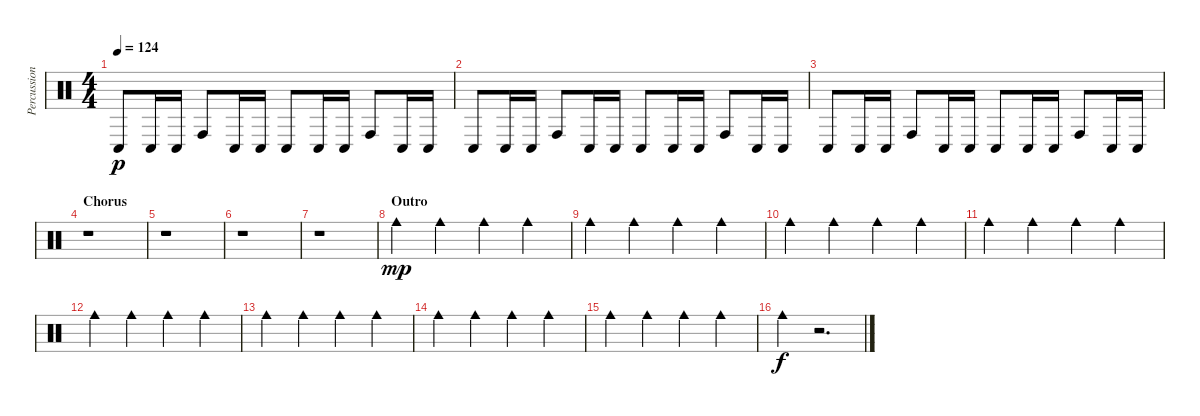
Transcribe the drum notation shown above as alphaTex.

\track ("Percussion" "Percussion") {instrument percussion}
\staff {score}
\articulation defaults
\ts (4 4)
\tempo 124
\clef neutral
\ks c "Conga low (hit)".8{dy p} "Conga low (hit)".16 "Conga low (hit)".16 "Conga high (hit)".8 "Conga low (hit)".16 "Conga low (hit)".16 "Conga low (hit)".8 "Conga low (hit)".16 "Conga low (hit)".16 "Conga high (hit)".8 "Conga low (hit)".16 "Conga low (hit)".16
|
\section ("" "")
"Conga low (hit)".8 "Conga low (hit)".16 "Conga low (hit)".16 "Conga high (hit)".8 "Conga low (hit)".16 "Conga low (hit)".16 "Conga low (hit)".8 "Conga low (hit)".16 "Conga low (hit)".16 "Conga high (hit)".8 "Conga low (hit)".16 "Conga low (hit)".16 |
"Conga low (hit)".8 "Conga low (hit)".16 "Conga low (hit)".16 "Conga high (hit)".8 "Conga low (hit)".16 "Conga low (hit)".16 "Conga low (hit)".8 "Conga low (hit)".16 "Conga low (hit)".16 "Conga high (hit)".8 "Conga low (hit)".16 "Conga low (hit)".16 |
\section ("" "Chorus")
r.1 |
r.1 |
r.1 |
r.1 |
\section ("" "Outro")
"Cowbell medium (hit)".4{dy mp} "Cowbell medium (hit)".4 "Cowbell medium (hit)".4 "Cowbell medium (hit)".4 |
"Cowbell medium (hit)".4 "Cowbell medium (hit)".4 "Cowbell medium (hit)".4 "Cowbell medium (hit)".4 |
"Cowbell medium (hit)".4 "Cowbell medium (hit)".4 "Cowbell medium (hit)".4 "Cowbell medium (hit)".4 |
"Cowbell medium (hit)".4 "Cowbell medium (hit)".4 "Cowbell medium (hit)".4 "Cowbell medium (hit)".4 |
"Cowbell medium (hit)".4 "Cowbell medium (hit)".4 "Cowbell medium (hit)".4 "Cowbell medium (hit)".4 |
"Cowbell medium (hit)".4 "Cowbell medium (hit)".4 "Cowbell medium (hit)".4 "Cowbell medium (hit)".4 |
"Cowbell medium (hit)".4 "Cowbell medium (hit)".4 "Cowbell medium (hit)".4 "Cowbell medium (hit)".4 |
"Cowbell medium (hit)".4 "Cowbell medium (hit)".4 "Cowbell medium (hit)".4 "Cowbell medium (hit)".4 |
"Cowbell medium (hit)".4{dy f} r.2{d}
